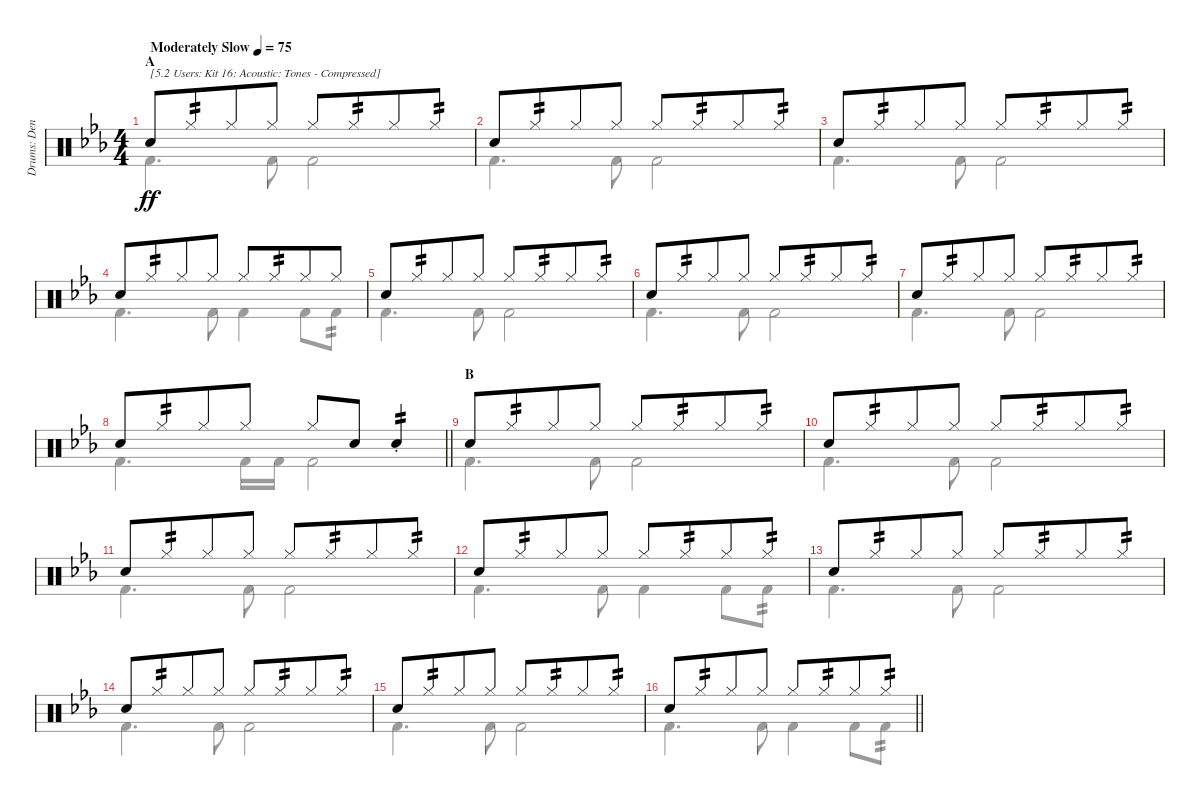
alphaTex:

\track ("Drums: Denny" "Drums: Den") {instrument percussion}
\staff {score}
\articulation defaults
\voice
\ts (4 4)
\section ("" "A")
\tempo (75 "Moderately Slow")
\clef neutral
\ks eb "Snare (hit) 2".8{txt "[5.2 Users: Kit 16: Acoustic: Tones - Compressed]" dy ff} "Hi-Hat (closed)".8{tp 2 beam merge} "Hi-Hat (closed)".8 "Hi-Hat (closed)".8 "Hi-Hat (closed)".8 "Hi-Hat (closed)".8{tp 2 beam merge} "Hi-Hat (closed)".8 "Hi-Hat (closed)".8{tp 2}
|
"Snare (hit) 2".8 "Hi-Hat (closed)".8{tp 2 beam merge} "Hi-Hat (closed)".8 "Hi-Hat (closed)".8 "Hi-Hat (closed)".8 "Hi-Hat (closed)".8{tp 2 beam merge} "Hi-Hat (closed)".8 "Hi-Hat (closed)".8{tp 2} |
"Snare (hit) 2".8 "Hi-Hat (closed)".8{tp 2 beam merge} "Hi-Hat (closed)".8 "Hi-Hat (closed)".8 "Hi-Hat (closed)".8 "Hi-Hat (closed)".8{tp 2 beam merge} "Hi-Hat (closed)".8 "Hi-Hat (closed)".8{tp 2} |
"Snare (hit) 2".8 "Hi-Hat (closed)".8{tp 2 beam merge} "Hi-Hat (closed)".8 "Hi-Hat (closed)".8 "Hi-Hat (closed)".8 "Hi-Hat (closed)".8{tp 2 beam merge} "Hi-Hat (closed)".8 "Hi-Hat (closed)".8 |
"Snare (hit) 2".8 "Hi-Hat (closed)".8{tp 2 beam merge} "Hi-Hat (closed)".8 "Hi-Hat (closed)".8 "Hi-Hat (closed)".8 "Hi-Hat (closed)".8{tp 2 beam merge} "Hi-Hat (closed)".8 "Hi-Hat (closed)".8{tp 2} |
"Snare (hit) 2".8 "Hi-Hat (closed)".8{tp 2 beam merge} "Hi-Hat (closed)".8 "Hi-Hat (closed)".8 "Hi-Hat (closed)".8 "Hi-Hat (closed)".8{tp 2 beam merge} "Hi-Hat (closed)".8 "Hi-Hat (closed)".8{tp 2} |
"Snare (hit) 2".8 "Hi-Hat (closed)".8{tp 2 beam merge} "Hi-Hat (closed)".8 "Hi-Hat (closed)".8 "Hi-Hat (closed)".8 "Hi-Hat (closed)".8{tp 2 beam merge} "Hi-Hat (closed)".8 "Hi-Hat (closed)".8{tp 2} |
\barLineRight lightlight "Snare (hit) 2".8 "Hi-Hat (closed)".8{tp 2 beam merge} "Hi-Hat (closed)".8 "Hi-Hat (closed)".8 "Hi-Hat (closed)".8 "Snare (hit) 2".8{beam merge} "Snare (hit) 2"{st}.4{tp 2}
|
\section ("" "B")
"Snare (hit) 2".8 "Hi-Hat (closed)".8{tp 2 beam merge} "Hi-Hat (closed)".8 "Hi-Hat (closed)".8 "Hi-Hat (closed)".8 "Hi-Hat (closed)".8{tp 2 beam merge} "Hi-Hat (closed)".8 "Hi-Hat (closed)".8{tp 2} |
"Snare (hit) 2".8 "Hi-Hat (closed)".8{tp 2 beam merge} "Hi-Hat (closed)".8 "Hi-Hat (closed)".8 "Hi-Hat (closed)".8 "Hi-Hat (closed)".8{tp 2 beam merge} "Hi-Hat (closed)".8 "Hi-Hat (closed)".8{tp 2} |
"Snare (hit) 2".8 "Hi-Hat (closed)".8{tp 2 beam merge} "Hi-Hat (closed)".8 "Hi-Hat (closed)".8 "Hi-Hat (closed)".8 "Hi-Hat (closed)".8{tp 2 beam merge} "Hi-Hat (closed)".8 "Hi-Hat (closed)".8{tp 2} |
"Snare (hit) 2".8 "Hi-Hat (closed)".8{tp 2 beam merge} "Hi-Hat (closed)".8 "Hi-Hat (closed)".8 "Hi-Hat (closed)".8 "Hi-Hat (closed)".8{tp 2 beam merge} "Hi-Hat (closed)".8 "Hi-Hat (closed)".8{tp 2} |
"Snare (hit) 2".8 "Hi-Hat (closed)".8{tp 2 beam merge} "Hi-Hat (closed)".8 "Hi-Hat (closed)".8 "Hi-Hat (closed)".8 "Hi-Hat (closed)".8{tp 2 beam merge} "Hi-Hat (closed)".8 "Hi-Hat (closed)".8{tp 2} |
"Snare (hit) 2".8 "Hi-Hat (closed)".8{tp 2 beam merge} "Hi-Hat (closed)".8 "Hi-Hat (closed)".8 "Hi-Hat (closed)".8 "Hi-Hat (closed)".8{tp 2 beam merge} "Hi-Hat (closed)".8 "Hi-Hat (closed)".8{tp 2} |
"Snare (hit) 2".8 "Hi-Hat (closed)".8{tp 2 beam merge} "Hi-Hat (closed)".8 "Hi-Hat (closed)".8 "Hi-Hat (closed)".8 "Hi-Hat (closed)".8{tp 2 beam merge} "Hi-Hat (closed)".8 "Hi-Hat (closed)".8{tp 2} |
\barLineRight lightlight "Snare (hit) 2".8 "Hi-Hat (closed)".8{tp 2 beam merge} "Hi-Hat (closed)".8 "Hi-Hat (closed)".8 "Hi-Hat (closed)".8 "Hi-Hat (closed)".8{tp 2 beam merge} "Hi-Hat (closed)".8 "Hi-Hat (closed)".8{tp 2}
\voice
\clef neutral
\ottava regular
\simile none
\ks eb "Kick (hit) 2".4{d dy ff} "Kick (hit) 2".8 "Kick (hit) 2".2
|
"Kick (hit) 2".4{d} "Kick (hit) 2".8 "Kick (hit) 2".2 |
"Kick (hit) 2".4{d} "Kick (hit) 2".8 "Kick (hit) 2".2 |
"Kick (hit) 2".4{d} "Kick (hit) 2".8 "Kick (hit) 2".4 "Kick (hit) 2".8 "Kick (hit) 2".8{tp 2} |
"Kick (hit) 2".4{d} "Kick (hit) 2".8 "Kick (hit) 2".2 |
"Kick (hit) 2".4{d} "Kick (hit) 2".8 "Kick (hit) 2".2 |
"Kick (hit) 2".4{d} "Kick (hit) 2".8 "Kick (hit) 2".2 |
\barLineRight lightlight "Kick (hit) 2".4{d} "Kick (hit) 2".16 "Kick (hit) 2".16 "Kick (hit) 2".2
|
"Kick (hit) 2".4{d} "Kick (hit) 2".8 "Kick (hit) 2".2 |
"Kick (hit) 2".4{d} "Kick (hit) 2".8 "Kick (hit) 2".2 |
"Kick (hit) 2".4{d} "Kick (hit) 2".8 "Kick (hit) 2".2 |
"Kick (hit) 2".4{d} "Kick (hit) 2".8 "Kick (hit) 2".4 "Kick (hit) 2".8 "Kick (hit) 2".8{tp 2} |
"Kick (hit) 2".4{d} "Kick (hit) 2".8 "Kick (hit) 2".2 |
"Kick (hit) 2".4{d} "Kick (hit) 2".8 "Kick (hit) 2".2 |
"Kick (hit) 2".4{d} "Kick (hit) 2".8 "Kick (hit) 2".2 |
\barLineRight lightlight "Kick (hit) 2".4{d} "Kick (hit) 2".8 "Kick (hit) 2".4 "Kick (hit) 2".8 "Kick (hit) 2".8{tp 2}
